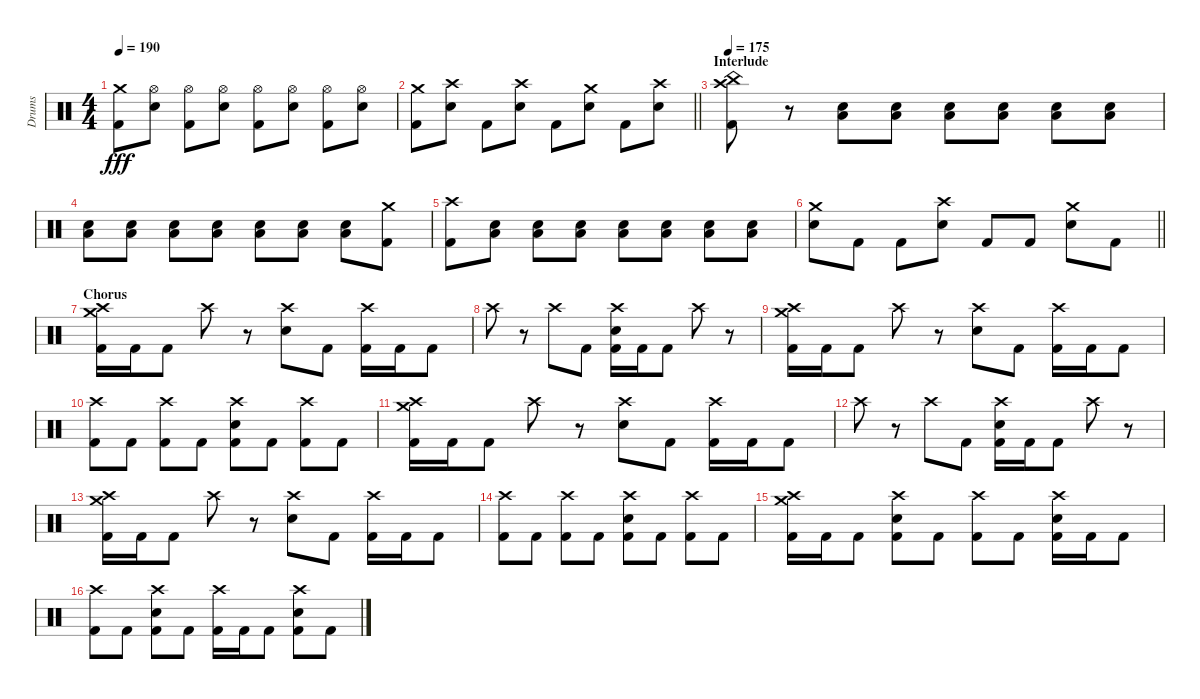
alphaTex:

\track ("Drums" "Drums") {instrument percussion}
\staff {score}
\articulation defaults
\ts (4 4)
\tempo 190
\clef neutral
\ks c
("Crash medium (hit)" "Kick (hit) 2").8{dy fff} ("Hi-Hat (open)" "Electric Snare (hit)").8 ("Hi-Hat (open)" "Kick (hit) 2").8 ("Hi-Hat (open)" "Electric Snare (hit)").8 ("Hi-Hat (open)" "Kick (hit) 2").8 ("Hi-Hat (open)" "Electric Snare (hit)").8 ("Hi-Hat (open)" "Kick (hit) 2").8 ("Hi-Hat (open)" "Electric Snare (hit)").8 |
\barLineRight lightlight
("Crash medium (hit)" "Kick (hit) 2").8 ("Crash high (hit)" "Electric Snare (hit)").8 "Kick (hit) 2".8 ("Crash high (hit)" "Electric Snare (hit)").8 "Kick (hit) 2".8 ("Crash medium (hit)" "Electric Snare (hit)").8 "Kick (hit) 2".8 ("Crash high (hit)" "Electric Snare (hit)").8 |
\section ("" "Interlude")
\tempo 175
("Crash high (hit)" "China (hit)" "Kick (hit) 2").8 r.8 ("Electric Snare (hit)" "Low Floor Tom (hit)").8 ("Electric Snare (hit)" "Low Floor Tom (hit)").8 ("Electric Snare (hit)" "Low Floor Tom (hit)").8 ("Electric Snare (hit)" "Low Floor Tom (hit)").8 ("Electric Snare (hit)" "Low Floor Tom (hit)").8 ("Electric Snare (hit)" "Low Floor Tom (hit)").8 |
("Electric Snare (hit)" "Low Floor Tom (hit)").8 ("Electric Snare (hit)" "Low Floor Tom (hit)").8 ("Electric Snare (hit)" "Low Floor Tom (hit)").8 ("Electric Snare (hit)" "Low Floor Tom (hit)").8 ("Electric Snare (hit)" "Low Floor Tom (hit)").8 ("Electric Snare (hit)" "Low Floor Tom (hit)").8 ("Electric Snare (hit)" "Low Floor Tom (hit)").8 ("Crash medium (hit)" "Kick (hit) 2").8 |
("Crash high (hit)" "Kick (hit) 2").8 ("Electric Snare (hit)" "Low Floor Tom (hit)").8 ("Electric Snare (hit)" "Low Floor Tom (hit)").8 ("Electric Snare (hit)" "Low Floor Tom (hit)").8 ("Electric Snare (hit)" "Low Floor Tom (hit)").8 ("Electric Snare (hit)" "Low Floor Tom (hit)").8 ("Electric Snare (hit)" "Low Floor Tom (hit)").8 ("Electric Snare (hit)" "Low Floor Tom (hit)").8 |
\barLineRight lightlight
("Crash medium (hit)" "Electric Snare (hit)").8 "Kick (hit) 2".8 "Kick (hit) 2".8 ("Crash high (hit)" "Electric Snare (hit)").8 "Kick (hit) 2".8 "Kick (hit) 2".8 ("Crash medium (hit)" "Electric Snare (hit)").8 "Kick (hit) 2".8 |
\section ("" "Chorus")
("Crash high (hit)" "Crash medium (hit)" "Kick (hit) 2").16 "Kick (hit) 2".16 "Kick (hit) 2".8 "Crash high (hit)".8 r.8 ("Crash high (hit)" "Electric Snare (hit)").8 "Kick (hit) 2".8 ("Crash high (hit)" "Kick (hit) 2").16 "Kick (hit) 2".16 "Kick (hit) 2".8 |
"Crash high (hit)".8 r.8 "Crash high (hit)".8 "Kick (hit) 2".8 ("Crash high (hit)" "Electric Snare (hit)" "Kick (hit) 2").16 "Kick (hit) 2".16 "Kick (hit) 2".8 "Crash high (hit)".8 r.8 |
("Crash high (hit)" "Crash medium (hit)" "Kick (hit) 2").16 "Kick (hit) 2".16 "Kick (hit) 2".8 "Crash high (hit)".8 r.8 ("Crash high (hit)" "Electric Snare (hit)").8 "Kick (hit) 2".8 ("Crash high (hit)" "Kick (hit) 2").16 "Kick (hit) 2".16 "Kick (hit) 2".8 |
("Crash high (hit)" "Kick (hit) 2").8 "Kick (hit) 2".8 ("Crash high (hit)" "Kick (hit) 2").8 "Kick (hit) 2".8 ("Crash high (hit)" "Electric Snare (hit)" "Kick (hit) 2").8 "Kick (hit) 2".8 ("Crash high (hit)" "Kick (hit) 2").8 "Kick (hit) 2".8 |
("Crash high (hit)" "Crash medium (hit)" "Kick (hit) 2").16 "Kick (hit) 2".16 "Kick (hit) 2".8 "Crash high (hit)".8 r.8 ("Crash high (hit)" "Electric Snare (hit)").8 "Kick (hit) 2".8 ("Crash high (hit)" "Kick (hit) 2").16 "Kick (hit) 2".16 "Kick (hit) 2".8 |
"Crash high (hit)".8 r.8 "Crash high (hit)".8 "Kick (hit) 2".8 ("Crash high (hit)" "Electric Snare (hit)" "Kick (hit) 2").16 "Kick (hit) 2".16 "Kick (hit) 2".8 "Crash high (hit)".8 r.8 |
("Crash high (hit)" "Crash medium (hit)" "Kick (hit) 2").16 "Kick (hit) 2".16 "Kick (hit) 2".8 "Crash high (hit)".8 r.8 ("Crash high (hit)" "Electric Snare (hit)").8 "Kick (hit) 2".8 ("Crash high (hit)" "Kick (hit) 2").16 "Kick (hit) 2".16 "Kick (hit) 2".8 |
("Crash high (hit)" "Kick (hit) 2").8 "Kick (hit) 2".8 ("Crash high (hit)" "Kick (hit) 2").8 "Kick (hit) 2".8 ("Crash high (hit)" "Electric Snare (hit)" "Kick (hit) 2").8 "Kick (hit) 2".8 ("Crash high (hit)" "Kick (hit) 2").8 "Kick (hit) 2".8 |
("Crash high (hit)" "Crash medium (hit)" "Kick (hit) 2").16 "Kick (hit) 2".16 "Kick (hit) 2".8 ("Crash high (hit)" "Electric Snare (hit)" "Kick (hit) 2").8 "Kick (hit) 2".8 ("Crash high (hit)" "Kick (hit) 2").8 "Kick (hit) 2".8 ("Crash high (hit)" "Electric Snare (hit)" "Kick (hit) 2").16 "Kick (hit) 2".16 "Kick (hit) 2".8 |
("Crash high (hit)" "Kick (hit) 2").8 "Kick (hit) 2".8 ("Crash high (hit)" "Electric Snare (hit)" "Kick (hit) 2").8 "Kick (hit) 2".8 ("Crash high (hit)" "Kick (hit) 2").16 "Kick (hit) 2".16 "Kick (hit) 2".8 ("Crash high (hit)" "Electric Snare (hit)" "Kick (hit) 2").8 "Kick (hit) 2".8
